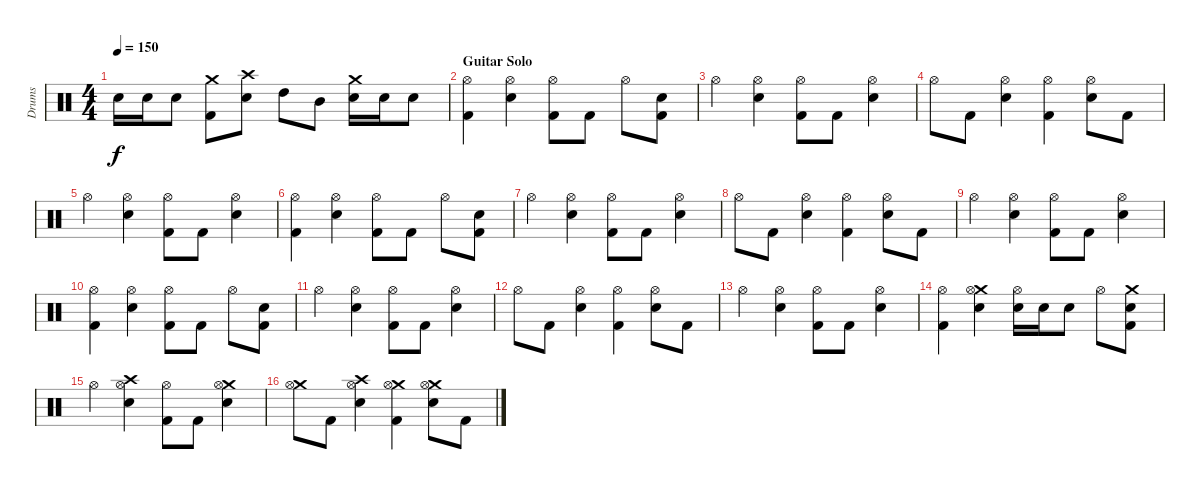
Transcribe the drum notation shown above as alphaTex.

\track ("Drums" "Drums") {instrument percussion}
\staff {score}
\articulation defaults
\ts (4 4)
\tempo 150
\clef neutral
\ks c "Electric Snare (hit)".16{dy f} "Electric Snare (hit)".16 "Electric Snare (hit)".8
("Crash medium (hit)" "Kick (hit) 2").8 ("Crash high (hit)" "Electric Snare (hit)").8 "High Tom (hit)".8 "Mid Tom (hit)".8 ("Crash medium (hit)" "Electric Snare (hit)").16 "Electric Snare (hit)".16 "Electric Snare (hit)".8 |
\section ("" "Guitar Solo")
("Hi-Hat (open)" "Kick (hit) 2").4 ("Hi-Hat (open)" "Electric Snare (hit)").4 ("Hi-Hat (open)" "Kick (hit) 2").8 "Kick (hit) 2".8 "Hi-Hat (open)".8 ("Electric Snare (hit)" "Kick (hit) 2").8 |
"Hi-Hat (open)".4 ("Hi-Hat (open)" "Electric Snare (hit)").4 ("Hi-Hat (open)" "Kick (hit) 2").8 "Kick (hit) 2".8 ("Hi-Hat (open)" "Electric Snare (hit)").4 |
"Hi-Hat (open)".8 "Kick (hit) 2".8 ("Hi-Hat (open)" "Electric Snare (hit)").4 ("Hi-Hat (open)" "Kick (hit) 2").4 ("Hi-Hat (open)" "Electric Snare (hit)").8 "Kick (hit) 2".8 |
"Hi-Hat (open)".4 ("Hi-Hat (open)" "Electric Snare (hit)").4 ("Hi-Hat (open)" "Kick (hit) 2").8 "Kick (hit) 2".8 ("Hi-Hat (open)" "Electric Snare (hit)").4 |
("Hi-Hat (open)" "Kick (hit) 2").4 ("Hi-Hat (open)" "Electric Snare (hit)").4 ("Hi-Hat (open)" "Kick (hit) 2").8 "Kick (hit) 2".8 "Hi-Hat (open)".8 ("Electric Snare (hit)" "Kick (hit) 2").8 |
"Hi-Hat (open)".4 ("Hi-Hat (open)" "Electric Snare (hit)").4 ("Hi-Hat (open)" "Kick (hit) 2").8 "Kick (hit) 2".8 ("Hi-Hat (open)" "Electric Snare (hit)").4 |
"Hi-Hat (open)".8 "Kick (hit) 2".8 ("Hi-Hat (open)" "Electric Snare (hit)").4 ("Hi-Hat (open)" "Kick (hit) 2").4 ("Hi-Hat (open)" "Electric Snare (hit)").8 "Kick (hit) 2".8 |
"Hi-Hat (open)".4 ("Hi-Hat (open)" "Electric Snare (hit)").4 ("Hi-Hat (open)" "Kick (hit) 2").8 "Kick (hit) 2".8 ("Hi-Hat (open)" "Electric Snare (hit)").4 |
("Hi-Hat (open)" "Kick (hit) 2").4 ("Hi-Hat (open)" "Electric Snare (hit)").4 ("Hi-Hat (open)" "Kick (hit) 2").8 "Kick (hit) 2".8 "Hi-Hat (open)".8 ("Electric Snare (hit)" "Kick (hit) 2").8 |
"Hi-Hat (open)".4 ("Hi-Hat (open)" "Electric Snare (hit)").4 ("Hi-Hat (open)" "Kick (hit) 2").8 "Kick (hit) 2".8 ("Hi-Hat (open)" "Electric Snare (hit)").4 |
"Hi-Hat (open)".8 "Kick (hit) 2".8 ("Hi-Hat (open)" "Electric Snare (hit)").4 ("Hi-Hat (open)" "Kick (hit) 2").4 ("Hi-Hat (open)" "Electric Snare (hit)").8 "Kick (hit) 2".8 |
"Hi-Hat (open)".4 ("Hi-Hat (open)" "Electric Snare (hit)").4 ("Hi-Hat (open)" "Kick (hit) 2").8 "Kick (hit) 2".8 ("Hi-Hat (open)" "Electric Snare (hit)").4 |
("Hi-Hat (open)" "Kick (hit) 2").4 ("Crash medium (hit)" "Hi-Hat (open)" "Electric Snare (hit)").4 ("Hi-Hat (open)" "Electric Snare (hit)").16 "Electric Snare (hit)".16 "Electric Snare (hit)".8 "Hi-Hat (open)".8 ("Crash medium (hit)" "Electric Snare (hit)" "Kick (hit) 2").8 |
"Hi-Hat (open)".4 ("Crash high (hit)" "Hi-Hat (open)" "Electric Snare (hit)").4 ("Hi-Hat (open)" "Kick (hit) 2").8 "Kick (hit) 2".8 ("Crash medium (hit)" "Hi-Hat (open)" "Electric Snare (hit)").4 |
("Crash medium (hit)" "Hi-Hat (open)").8 "Kick (hit) 2".8 ("Crash high (hit)" "Hi-Hat (open)" "Electric Snare (hit)").4 ("Crash medium (hit)" "Hi-Hat (open)" "Kick (hit) 2").4 ("Crash medium (hit)" "Hi-Hat (open)" "Electric Snare (hit)").8 "Kick (hit) 2".8
